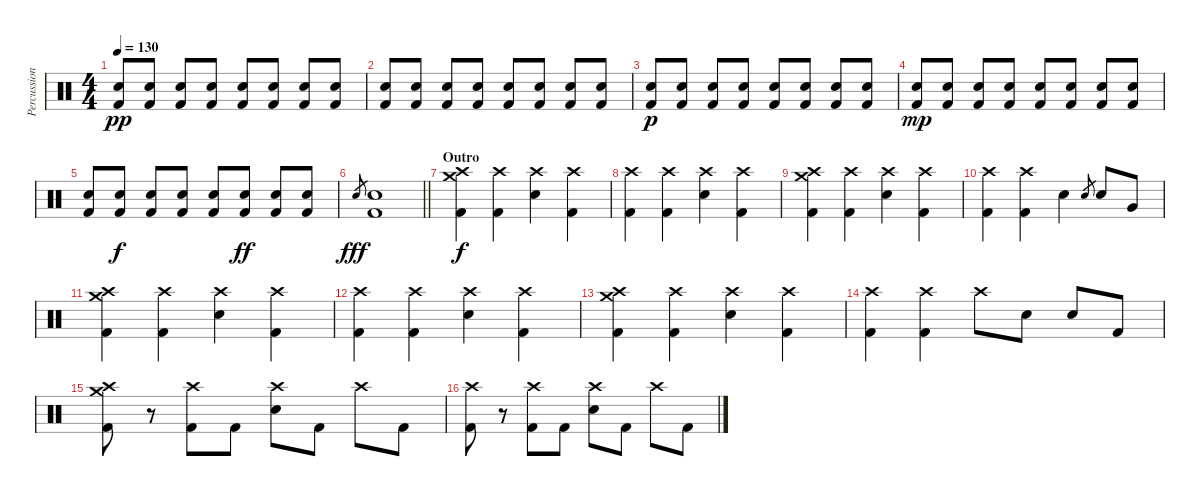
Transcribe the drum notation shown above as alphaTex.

\track ("Percussion" "Percussion") {instrument percussion}
\staff {score}
\articulation defaults
\ts (4 4)
\tempo 130
\clef neutral
\ks c
("Electric Snare (hit)" "Kick (hit) 2").8{dy pp} ("Electric Snare (hit)" "Kick (hit) 2").8 ("Electric Snare (hit)" "Kick (hit) 2").8 ("Electric Snare (hit)" "Kick (hit) 2").8 ("Electric Snare (hit)" "Kick (hit) 2").8 ("Electric Snare (hit)" "Kick (hit) 2").8 ("Electric Snare (hit)" "Kick (hit) 2").8 ("Electric Snare (hit)" "Kick (hit) 2").8 |
("Electric Snare (hit)" "Kick (hit) 2").8 ("Electric Snare (hit)" "Kick (hit) 2").8 ("Electric Snare (hit)" "Kick (hit) 2").8 ("Electric Snare (hit)" "Kick (hit) 2").8 ("Electric Snare (hit)" "Kick (hit) 2").8 ("Electric Snare (hit)" "Kick (hit) 2").8 ("Electric Snare (hit)" "Kick (hit) 2").8 ("Electric Snare (hit)" "Kick (hit) 2").8 |
("Electric Snare (hit)" "Kick (hit) 2").8{dy p} ("Electric Snare (hit)" "Kick (hit) 2").8 ("Electric Snare (hit)" "Kick (hit) 2").8 ("Electric Snare (hit)" "Kick (hit) 2").8 ("Electric Snare (hit)" "Kick (hit) 2").8 ("Electric Snare (hit)" "Kick (hit) 2").8 ("Electric Snare (hit)" "Kick (hit) 2").8 ("Electric Snare (hit)" "Kick (hit) 2").8 |
("Electric Snare (hit)" "Kick (hit) 2").8{dy mp} ("Electric Snare (hit)" "Kick (hit) 2").8 ("Electric Snare (hit)" "Kick (hit) 2").8 ("Electric Snare (hit)" "Kick (hit) 2").8 ("Electric Snare (hit)" "Kick (hit) 2").8 ("Electric Snare (hit)" "Kick (hit) 2").8 ("Electric Snare (hit)" "Kick (hit) 2").8 ("Electric Snare (hit)" "Kick (hit) 2").8 |
("Electric Snare (hit)" "Kick (hit) 2").8 ("Electric Snare (hit)" "Kick (hit) 2").8{dy f} ("Electric Snare (hit)" "Kick (hit) 2").8 ("Electric Snare (hit)" "Kick (hit) 2").8 ("Electric Snare (hit)" "Kick (hit) 2").8 ("Electric Snare (hit)" "Kick (hit) 2").8{dy ff} ("Electric Snare (hit)" "Kick (hit) 2").8 ("Electric Snare (hit)" "Kick (hit) 2").8 |
\barLineRight lightlight "Electric Snare (hit)".8{gr dy fff}
("Electric Snare (hit)" "Kick (hit) 2").1 |
\section ("" "Outro")
("Crash high (hit)" "Crash medium (hit)" "Kick (hit) 2").4{dy f} ("Crash high (hit)" "Kick (hit) 2").4 ("Crash high (hit)" "Electric Snare (hit)").4 ("Crash high (hit)" "Kick (hit) 2").4 |
("Crash high (hit)" "Kick (hit) 2").4 ("Crash high (hit)" "Kick (hit) 2").4 ("Crash high (hit)" "Electric Snare (hit)").4 ("Crash high (hit)" "Kick (hit) 2").4 |
("Crash high (hit)" "Crash medium (hit)" "Kick (hit) 2").4 ("Crash high (hit)" "Kick (hit) 2").4 ("Crash high (hit)" "Electric Snare (hit)").4 ("Crash high (hit)" "Kick (hit) 2").4 |
("Crash high (hit)" "Kick (hit) 2").4 ("Crash high (hit)" "Kick (hit) 2").4 "Electric Snare (hit)".4 "Electric Snare (hit)".8{gr} "Electric Snare (hit)".8 "Very Low Tom (hit)".8 |
("Crash high (hit)" "Crash medium (hit)" "Kick (hit) 2").4 ("Crash high (hit)" "Kick (hit) 2").4 ("Crash high (hit)" "Electric Snare (hit)").4 ("Crash high (hit)" "Kick (hit) 2").4 |
("Crash high (hit)" "Kick (hit) 2").4 ("Crash high (hit)" "Kick (hit) 2").4 ("Crash high (hit)" "Electric Snare (hit)").4 ("Crash high (hit)" "Kick (hit) 2").4 |
("Crash high (hit)" "Crash medium (hit)" "Kick (hit) 2").4 ("Crash high (hit)" "Kick (hit) 2").4 ("Crash high (hit)" "Electric Snare (hit)").4 ("Crash high (hit)" "Kick (hit) 2").4 |
("Crash high (hit)" "Kick (hit) 2").4 ("Crash high (hit)" "Kick (hit) 2").4 "Crash high (hit)".8 "Electric Snare (hit)".8 "Electric Snare (hit)".8 "Kick (hit) 2".8 |
("Crash high (hit)" "Crash medium (hit)" "Kick (hit) 2").8 r.8 ("Crash high (hit)" "Kick (hit) 2").8 "Kick (hit) 2".8 ("Crash high (hit)" "Electric Snare (hit)").8 "Kick (hit) 2".8 "Crash high (hit)".8 "Kick (hit) 2".8 |
("Crash high (hit)" "Kick (hit) 2").8 r.8 ("Crash high (hit)" "Kick (hit) 2").8 "Kick (hit) 2".8 ("Crash high (hit)" "Electric Snare (hit)").8 "Kick (hit) 2".8 "Crash high (hit)".8 "Kick (hit) 2".8
